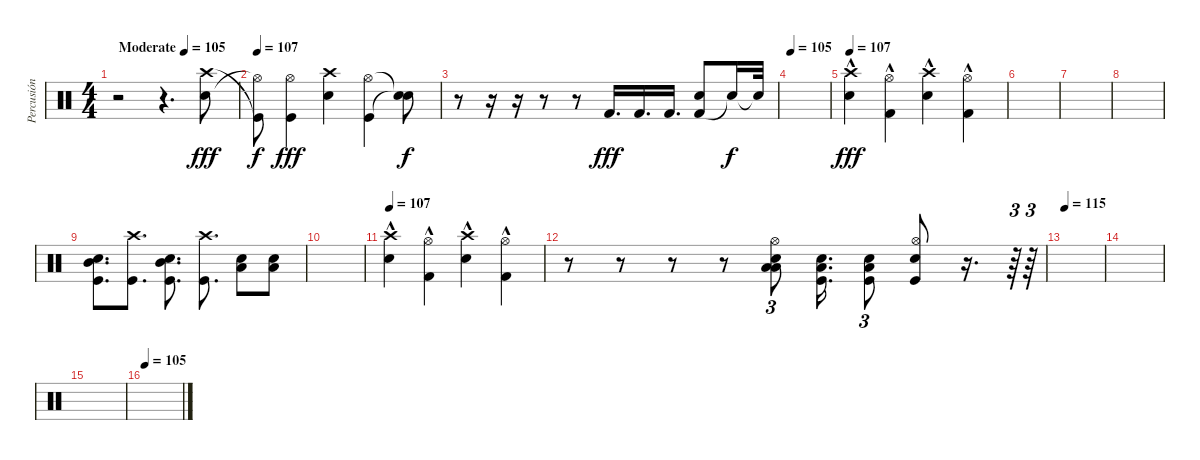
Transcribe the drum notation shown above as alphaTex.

\track ("Percusión" "Percusión") {instrument percussion}
\staff {score}
\articulation defaults
\ts (4 4)
\tempo (105 "Moderate")
\clef neutral
\ks c
r.2{dy fff} r.4{d} ("Electric Snare (hit)" "Crash high (hit)").8 |
\tempo 107
("Hi-Hat (open)"{t} "Kick (hit)"{t}).8{dy f} ("Hi-Hat (open)" "Kick (hit)").4{dy fff} ("Crash high (hit)" "Electric Snare (hit)").4 ("Hi-Hat (open)" "Kick (hit)").4 ("Snare (hit)"{t} "Snare (hit)"{t}).8{dy f} |
r.8 r.16 r.16 r.8 r.8 "Kick (hit) 2".16{d dy fff} "Kick (hit) 2".16{d} "Kick (hit) 2".16{d} ("Kick (hit) 2" "Electric Snare (hit)").8 "Snare (hit)"{t}.16{dy f} "Snare (hit)"{t}.32 |
\tempo 105
|
\tempo 107
("Crash high (hit)"{hac} "Electric Snare (hit)"{hac}).4{dy fff} ("Hi-Hat (open)" "Kick (hit) 2"{hac}).4 ("Crash high (hit)"{hac} "Electric Snare (hit)"{hac}).4 ("Hi-Hat (open)" "Kick (hit) 2"{hac}).4 |
|
|
|
("Mid Tom (hit)" "Electric Snare (hit)" "Kick (hit)").8{d} ("Crash high (hit)" "Kick (hit)").8{d} ("Mid Tom (hit)" "Electric Snare (hit)" "Kick (hit)").8{d} ("Crash high (hit)" "Kick (hit)").8{d} ("Electric Snare (hit)" "Low Floor Tom (hit)").8 ("Electric Snare (hit)" "Low Floor Tom (hit)").8 |
|
\tempo 107
("Crash high (hit)"{hac} "Electric Snare (hit)"{hac}).4 ("Hi-Hat (open)" "Kick (hit) 2"{hac}).4 ("Crash high (hit)"{hac} "Electric Snare (hit)"{hac}).4 ("Hi-Hat (open)" "Kick (hit) 2"{hac}).4 |
r.8 r.8 r.8 r.8 ("Hi-Hat (open)" "Low Tom (hit)" "Electric Snare (hit)" "Low Floor Tom (hit)").8{tu (3 2)} ("Kick (hit)" "Electric Snare (hit)" "Low Floor Tom (hit)").16{d} ("Kick (hit)" "Electric Snare (hit)" "Low Floor Tom (hit)").8{tu (3 2)} ("Hi-Hat (open)" "Electric Snare (hit)" "Kick (hit)").8 r.16{d} r.64{tu (3 2)} r.64{tu (3 2)} |
\tempo 115
|
|
|
\tempo 105
